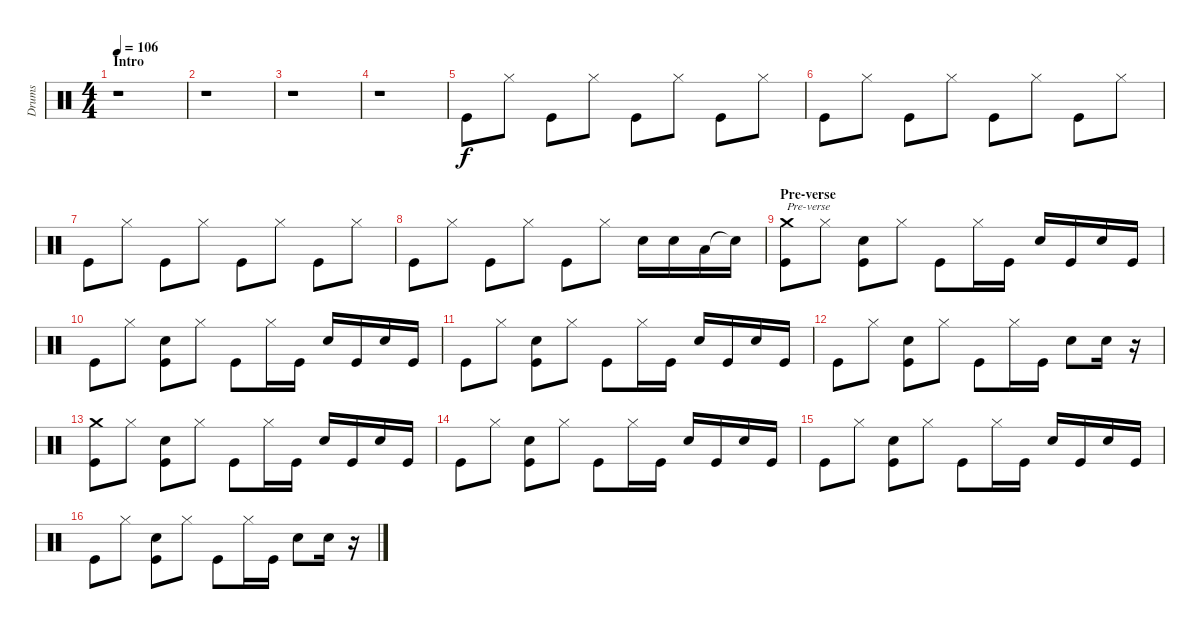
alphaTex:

\track ("Drums" "Drums") {instrument percussion}
\staff {score}
\articulation defaults
\ts (4 4)
\section ("" "Intro")
\tempo 106
\clef neutral
\ks c
r.1{dy f} |
r.1 |
r.1 |
r.1 |
"Kick (hit)".8 "Hi-Hat (closed)".8 "Kick (hit)".8 "Hi-Hat (closed)".8 "Kick (hit)".8 "Hi-Hat (closed)".8 "Kick (hit)".8 "Hi-Hat (closed)".8 |
"Kick (hit)".8 "Hi-Hat (closed)".8 "Kick (hit)".8 "Hi-Hat (closed)".8 "Kick (hit)".8 "Hi-Hat (closed)".8 "Kick (hit)".8 "Hi-Hat (closed)".8 |
"Kick (hit)".8 "Hi-Hat (closed)".8 "Kick (hit)".8 "Hi-Hat (closed)".8 "Kick (hit)".8 "Hi-Hat (closed)".8 "Kick (hit)".8 "Hi-Hat (closed)".8 |
"Kick (hit)".8 "Hi-Hat (closed)".8 "Kick (hit)".8 "Hi-Hat (closed)".8 "Kick (hit)".8 "Hi-Hat (closed)".8 "Electric Snare (hit)".16 "Electric Snare (hit)".16 "Low Floor Tom (hit)".16 "Snare (hit)"{t}.16 |
\section ("" "Pre-verse")
("Kick (hit)" "Crash medium (hit)").8{txt "Pre-verse"} "Hi-Hat (closed)".8 ("Kick (hit)" "Electric Snare (hit)").8 "Hi-Hat (closed)".8 "Kick (hit)".8 "Hi-Hat (closed)".16 "Kick (hit)".16 "Electric Snare (hit)".16 "Kick (hit)".16 "Electric Snare (hit)".16 "Kick (hit)".16 |
"Kick (hit)".8 "Hi-Hat (closed)".8 ("Kick (hit)" "Electric Snare (hit)").8 "Hi-Hat (closed)".8 "Kick (hit)".8 "Hi-Hat (closed)".16 "Kick (hit)".16 "Electric Snare (hit)".16 "Kick (hit)".16 "Electric Snare (hit)".16 "Kick (hit)".16 |
"Kick (hit)".8 "Hi-Hat (closed)".8 ("Kick (hit)" "Electric Snare (hit)").8 "Hi-Hat (closed)".8 "Kick (hit)".8 "Hi-Hat (closed)".16 "Kick (hit)".16 "Electric Snare (hit)".16 "Kick (hit)".16 "Electric Snare (hit)".16 "Kick (hit)".16 |
"Kick (hit)".8 "Hi-Hat (closed)".8 ("Kick (hit)" "Electric Snare (hit)").8 "Hi-Hat (closed)".8 "Kick (hit)".8 "Hi-Hat (closed)".16 "Kick (hit)".16 "Electric Snare (hit)".8 "Electric Snare (hit)".16 r.16 |
("Kick (hit)" "Crash medium (hit)").8 "Hi-Hat (closed)".8 ("Kick (hit)" "Electric Snare (hit)").8 "Hi-Hat (closed)".8 "Kick (hit)".8 "Hi-Hat (closed)".16 "Kick (hit)".16 "Electric Snare (hit)".16 "Kick (hit)".16 "Electric Snare (hit)".16 "Kick (hit)".16 |
"Kick (hit)".8 "Hi-Hat (closed)".8 ("Kick (hit)" "Electric Snare (hit)").8 "Hi-Hat (closed)".8 "Kick (hit)".8 "Hi-Hat (closed)".16 "Kick (hit)".16 "Electric Snare (hit)".16 "Kick (hit)".16 "Electric Snare (hit)".16 "Kick (hit)".16 |
"Kick (hit)".8 "Hi-Hat (closed)".8 ("Kick (hit)" "Electric Snare (hit)").8 "Hi-Hat (closed)".8 "Kick (hit)".8 "Hi-Hat (closed)".16 "Kick (hit)".16 "Electric Snare (hit)".16 "Kick (hit)".16 "Electric Snare (hit)".16 "Kick (hit)".16 |
"Kick (hit)".8 "Hi-Hat (closed)".8 ("Kick (hit)" "Electric Snare (hit)").8 "Hi-Hat (closed)".8 "Kick (hit)".8 "Hi-Hat (closed)".16 "Kick (hit)".16 "Electric Snare (hit)".8 "Electric Snare (hit)".16 r.16
